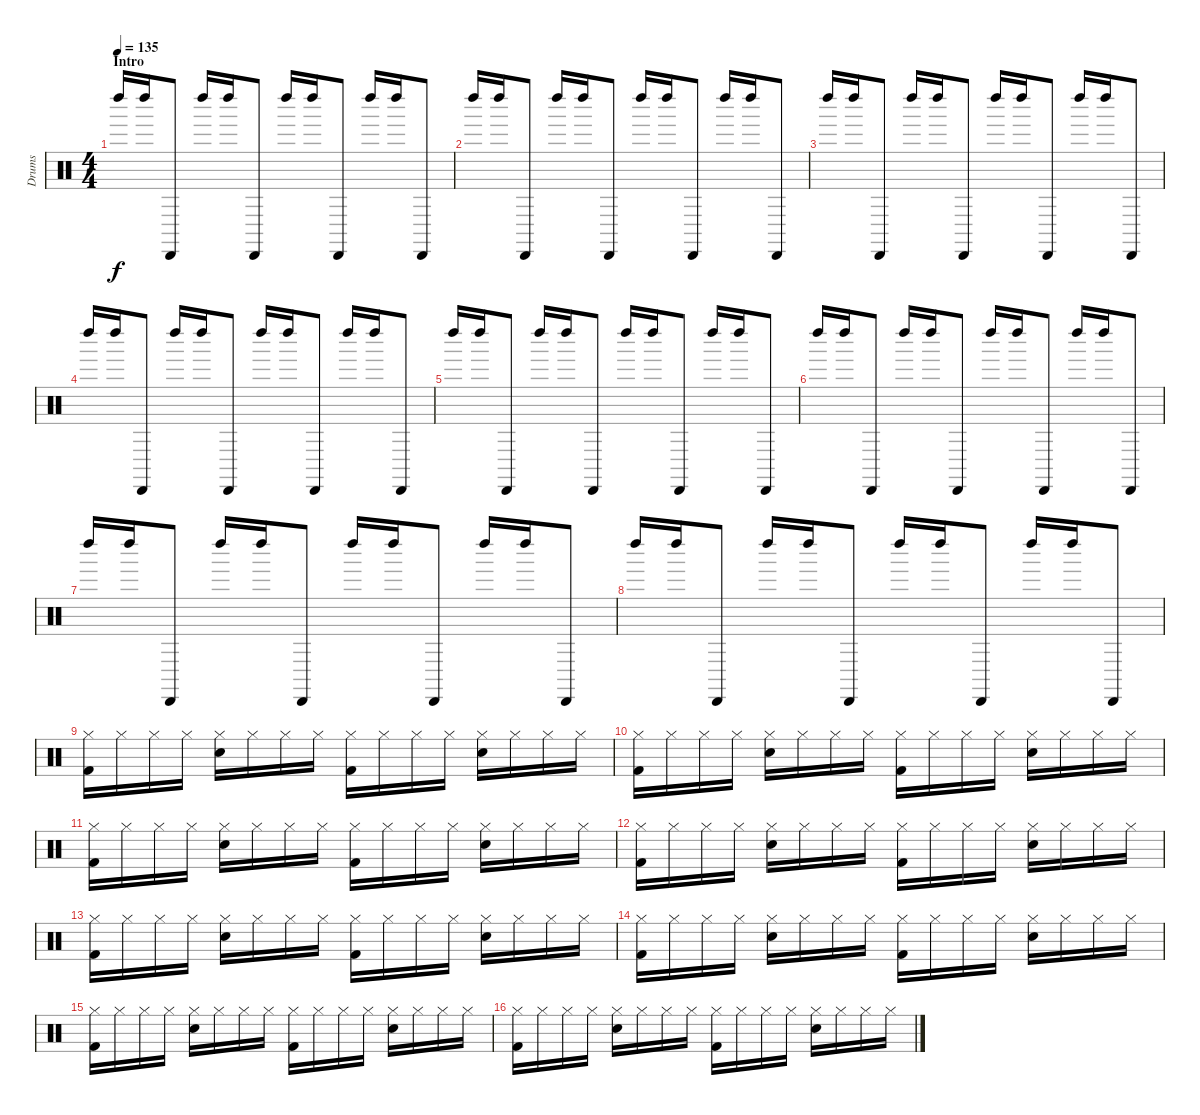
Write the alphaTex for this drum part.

\track ("Drums" "Drums") {instrument percussion}
\staff {score}
\articulation defaults
\ts (4 4)
\section ("" "Intro")
\tempo 135
\clef neutral
\ks c "Left Maraca (hit)".16{dy f volume 9} "Left Maraca (hit)".16 "Cabasa (hit)".8 "Left Maraca (hit)".16 "Left Maraca (hit)".16 "Cabasa (hit)".8 "Left Maraca (hit)".16 "Left Maraca (hit)".16 "Cabasa (hit)".8 "Left Maraca (hit)".16 "Left Maraca (hit)".16 "Cabasa (hit)".8
|
"Left Maraca (hit)".16 "Left Maraca (hit)".16 "Cabasa (hit)".8 "Left Maraca (hit)".16 "Left Maraca (hit)".16 "Cabasa (hit)".8 "Left Maraca (hit)".16 "Left Maraca (hit)".16 "Cabasa (hit)".8 "Left Maraca (hit)".16 "Left Maraca (hit)".16 "Cabasa (hit)".8 |
"Left Maraca (hit)".16 "Left Maraca (hit)".16 "Cabasa (hit)".8 "Left Maraca (hit)".16 "Left Maraca (hit)".16 "Cabasa (hit)".8 "Left Maraca (hit)".16 "Left Maraca (hit)".16 "Cabasa (hit)".8 "Left Maraca (hit)".16 "Left Maraca (hit)".16 "Cabasa (hit)".8 |
"Left Maraca (hit)".16 "Left Maraca (hit)".16 "Cabasa (hit)".8 "Left Maraca (hit)".16 "Left Maraca (hit)".16 "Cabasa (hit)".8 "Left Maraca (hit)".16 "Left Maraca (hit)".16 "Cabasa (hit)".8 "Left Maraca (hit)".16 "Left Maraca (hit)".16 "Cabasa (hit)".8 |
"Left Maraca (hit)".16 "Left Maraca (hit)".16 "Cabasa (hit)".8 "Left Maraca (hit)".16 "Left Maraca (hit)".16 "Cabasa (hit)".8 "Left Maraca (hit)".16 "Left Maraca (hit)".16 "Cabasa (hit)".8 "Left Maraca (hit)".16 "Left Maraca (hit)".16 "Cabasa (hit)".8 |
"Left Maraca (hit)".16 "Left Maraca (hit)".16 "Cabasa (hit)".8 "Left Maraca (hit)".16 "Left Maraca (hit)".16 "Cabasa (hit)".8 "Left Maraca (hit)".16 "Left Maraca (hit)".16 "Cabasa (hit)".8 "Left Maraca (hit)".16 "Left Maraca (hit)".16 "Cabasa (hit)".8 |
"Left Maraca (hit)".16 "Left Maraca (hit)".16 "Cabasa (hit)".8 "Left Maraca (hit)".16 "Left Maraca (hit)".16 "Cabasa (hit)".8 "Left Maraca (hit)".16 "Left Maraca (hit)".16 "Cabasa (hit)".8 "Left Maraca (hit)".16 "Left Maraca (hit)".16 "Cabasa (hit)".8 |
"Left Maraca (hit)".16 "Left Maraca (hit)".16 "Cabasa (hit)".8 "Left Maraca (hit)".16 "Left Maraca (hit)".16 "Cabasa (hit)".8 "Left Maraca (hit)".16 "Left Maraca (hit)".16 "Cabasa (hit)".8 "Left Maraca (hit)".16 "Left Maraca (hit)".16 "Cabasa (hit)".8 |
("Hi-Hat (closed)" "Kick (hit) 2").16{volume 14} "Hi-Hat (closed)".16 "Hi-Hat (closed)".16 "Hi-Hat (closed)".16 ("Hi-Hat (closed)" "Snare (hit) 2").16 "Hi-Hat (closed)".16 "Hi-Hat (closed)".16 "Hi-Hat (closed)".16 ("Hi-Hat (closed)" "Kick (hit) 2").16 "Hi-Hat (closed)".16 "Hi-Hat (closed)".16 "Hi-Hat (closed)".16 ("Hi-Hat (closed)" "Snare (hit) 2").16 "Hi-Hat (closed)".16 "Hi-Hat (closed)".16 "Hi-Hat (closed)".16 |
("Hi-Hat (closed)" "Kick (hit) 2").16 "Hi-Hat (closed)".16 "Hi-Hat (closed)".16 "Hi-Hat (closed)".16 ("Hi-Hat (closed)" "Snare (hit) 2").16 "Hi-Hat (closed)".16 "Hi-Hat (closed)".16 "Hi-Hat (closed)".16 ("Hi-Hat (closed)" "Kick (hit) 2").16 "Hi-Hat (closed)".16 "Hi-Hat (closed)".16 "Hi-Hat (closed)".16 ("Hi-Hat (closed)" "Snare (hit) 2").16 "Hi-Hat (closed)".16 "Hi-Hat (closed)".16 "Hi-Hat (closed)".16 |
("Hi-Hat (closed)" "Kick (hit) 2").16 "Hi-Hat (closed)".16 "Hi-Hat (closed)".16 "Hi-Hat (closed)".16 ("Hi-Hat (closed)" "Snare (hit) 2").16 "Hi-Hat (closed)".16 "Hi-Hat (closed)".16 "Hi-Hat (closed)".16 ("Hi-Hat (closed)" "Kick (hit) 2").16 "Hi-Hat (closed)".16 "Hi-Hat (closed)".16 "Hi-Hat (closed)".16 ("Hi-Hat (closed)" "Snare (hit) 2").16 "Hi-Hat (closed)".16 "Hi-Hat (closed)".16 "Hi-Hat (closed)".16 |
("Hi-Hat (closed)" "Kick (hit) 2").16 "Hi-Hat (closed)".16 "Hi-Hat (closed)".16 "Hi-Hat (closed)".16 ("Hi-Hat (closed)" "Snare (hit) 2").16 "Hi-Hat (closed)".16 "Hi-Hat (closed)".16 "Hi-Hat (closed)".16 ("Hi-Hat (closed)" "Kick (hit) 2").16 "Hi-Hat (closed)".16 "Hi-Hat (closed)".16 "Hi-Hat (closed)".16 ("Hi-Hat (closed)" "Snare (hit) 2").16 "Hi-Hat (closed)".16 "Hi-Hat (closed)".16 "Hi-Hat (closed)".16 |
("Hi-Hat (closed)" "Kick (hit) 2").16 "Hi-Hat (closed)".16 "Hi-Hat (closed)".16 "Hi-Hat (closed)".16 ("Hi-Hat (closed)" "Snare (hit) 2").16 "Hi-Hat (closed)".16 "Hi-Hat (closed)".16 "Hi-Hat (closed)".16 ("Hi-Hat (closed)" "Kick (hit) 2").16 "Hi-Hat (closed)".16 "Hi-Hat (closed)".16 "Hi-Hat (closed)".16 ("Hi-Hat (closed)" "Snare (hit) 2").16 "Hi-Hat (closed)".16 "Hi-Hat (closed)".16 "Hi-Hat (closed)".16 |
("Hi-Hat (closed)" "Kick (hit) 2").16 "Hi-Hat (closed)".16 "Hi-Hat (closed)".16 "Hi-Hat (closed)".16 ("Hi-Hat (closed)" "Snare (hit) 2").16 "Hi-Hat (closed)".16 "Hi-Hat (closed)".16 "Hi-Hat (closed)".16 ("Hi-Hat (closed)" "Kick (hit) 2").16 "Hi-Hat (closed)".16 "Hi-Hat (closed)".16 "Hi-Hat (closed)".16 ("Hi-Hat (closed)" "Snare (hit) 2").16 "Hi-Hat (closed)".16 "Hi-Hat (closed)".16 "Hi-Hat (closed)".16 |
("Hi-Hat (closed)" "Kick (hit) 2").16 "Hi-Hat (closed)".16 "Hi-Hat (closed)".16 "Hi-Hat (closed)".16 ("Hi-Hat (closed)" "Snare (hit) 2").16 "Hi-Hat (closed)".16 "Hi-Hat (closed)".16 "Hi-Hat (closed)".16 ("Hi-Hat (closed)" "Kick (hit) 2").16 "Hi-Hat (closed)".16 "Hi-Hat (closed)".16 "Hi-Hat (closed)".16 ("Hi-Hat (closed)" "Snare (hit) 2").16 "Hi-Hat (closed)".16 "Hi-Hat (closed)".16 "Hi-Hat (closed)".16 |
("Hi-Hat (closed)" "Kick (hit) 2").16 "Hi-Hat (closed)".16 "Hi-Hat (closed)".16 "Hi-Hat (closed)".16 ("Hi-Hat (closed)" "Snare (hit) 2").16 "Hi-Hat (closed)".16 "Hi-Hat (closed)".16 "Hi-Hat (closed)".16 ("Hi-Hat (closed)" "Kick (hit) 2").16 "Hi-Hat (closed)".16 "Hi-Hat (closed)".16 "Hi-Hat (closed)".16 ("Hi-Hat (closed)" "Snare (hit) 2").16 "Hi-Hat (closed)".16 "Hi-Hat (closed)".16 "Hi-Hat (closed)".16
